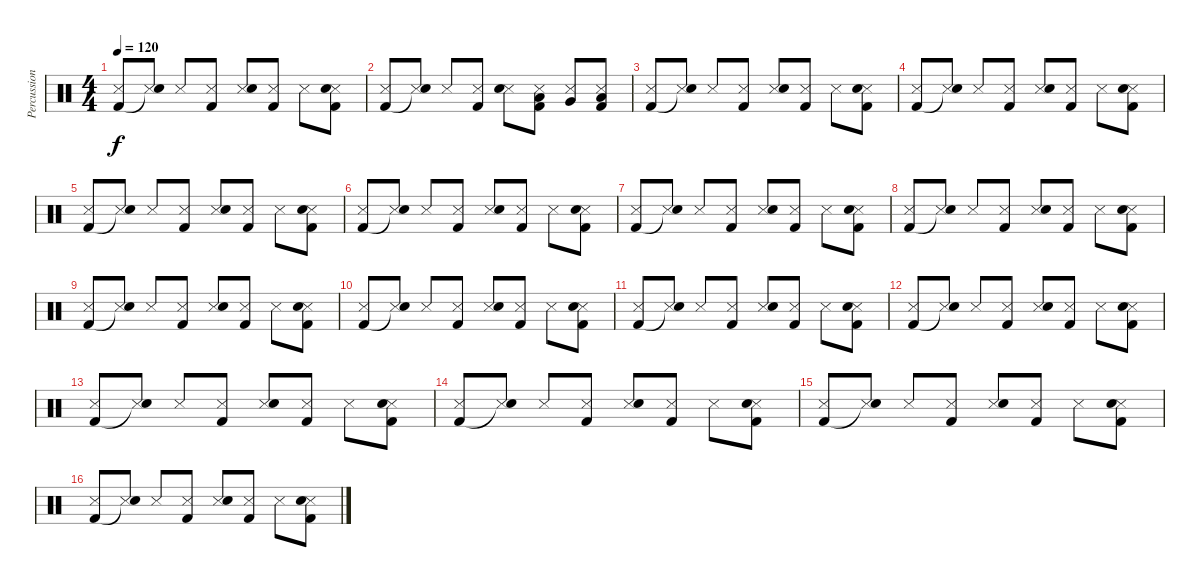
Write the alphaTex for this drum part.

\track ("Percussion" "Percussion") {instrument percussion}
\staff {score}
\articulation defaults
\ts (4 4)
\tempo 120
\clef neutral
\ks c
("Snare (side stick) 3" "Kick (hit) 2").8{dy f} ("Snare (side stick) 3" "Snare (hit)"{t}).8 "Snare (side stick) 3".8 ("Snare (side stick) 3" "Kick (hit) 2").8 ("Snare (side stick) 3" "Electric Snare (hit)").8 ("Snare (side stick) 3" "Kick (hit) 2").8 "Snare (side stick) 3".8 ("Snare (side stick) 3" "Electric Snare (hit)" "Kick (hit) 2").8 |
("Snare (side stick) 3" "Kick (hit) 2").8 ("Snare (side stick) 3" "Snare (hit)"{t}).8 "Snare (side stick) 3".8 ("Snare (side stick) 3" "Kick (hit) 2").8 ("Snare (side stick) 3" "Electric Snare (hit)").8 ("Snare (side stick) 3" "Low Tom (hit)" "Kick (hit) 2").8 ("Snare (side stick) 3" "Very Low Tom (hit)").8 ("Snare (side stick) 3" "Low Floor Tom (hit)" "Kick (hit) 2").8 |
("Snare (side stick) 3" "Kick (hit) 2").8 ("Snare (side stick) 3" "Snare (hit)"{t}).8 "Snare (side stick) 3".8 ("Snare (side stick) 3" "Kick (hit) 2").8 ("Snare (side stick) 3" "Electric Snare (hit)").8 ("Snare (side stick) 3" "Kick (hit) 2").8 "Snare (side stick) 3".8 ("Snare (side stick) 3" "Electric Snare (hit)" "Kick (hit) 2").8 |
("Snare (side stick) 3" "Kick (hit) 2").8 ("Snare (side stick) 3" "Snare (hit)"{t}).8 "Snare (side stick) 3".8 ("Snare (side stick) 3" "Kick (hit) 2").8 ("Snare (side stick) 3" "Electric Snare (hit)").8 ("Snare (side stick) 3" "Kick (hit) 2").8 "Snare (side stick) 3".8 ("Snare (side stick) 3" "Electric Snare (hit)" "Kick (hit) 2").8 |
("Snare (side stick) 3" "Kick (hit) 2").8 ("Snare (side stick) 3" "Snare (hit)"{t}).8 "Snare (side stick) 3".8 ("Snare (side stick) 3" "Kick (hit) 2").8 ("Snare (side stick) 3" "Electric Snare (hit)").8 ("Snare (side stick) 3" "Kick (hit) 2").8 "Snare (side stick) 3".8 ("Snare (side stick) 3" "Electric Snare (hit)" "Kick (hit) 2").8 |
("Snare (side stick) 3" "Kick (hit) 2").8 ("Snare (side stick) 3" "Snare (hit)"{t}).8 "Snare (side stick) 3".8 ("Snare (side stick) 3" "Kick (hit) 2").8 ("Snare (side stick) 3" "Electric Snare (hit)").8 ("Snare (side stick) 3" "Kick (hit) 2").8 "Snare (side stick) 3".8 ("Snare (side stick) 3" "Electric Snare (hit)" "Kick (hit) 2").8 |
("Snare (side stick) 3" "Kick (hit) 2").8 ("Snare (side stick) 3" "Snare (hit)"{t}).8 "Snare (side stick) 3".8 ("Snare (side stick) 3" "Kick (hit) 2").8 ("Snare (side stick) 3" "Electric Snare (hit)").8 ("Snare (side stick) 3" "Kick (hit) 2").8 "Snare (side stick) 3".8 ("Snare (side stick) 3" "Electric Snare (hit)" "Kick (hit) 2").8 |
("Snare (side stick) 3" "Kick (hit) 2").8 ("Snare (side stick) 3" "Snare (hit)"{t}).8 "Snare (side stick) 3".8 ("Snare (side stick) 3" "Kick (hit) 2").8 ("Snare (side stick) 3" "Electric Snare (hit)").8 ("Snare (side stick) 3" "Kick (hit) 2").8 "Snare (side stick) 3".8 ("Snare (side stick) 3" "Electric Snare (hit)" "Kick (hit) 2").8 |
("Snare (side stick) 3" "Kick (hit) 2").8 ("Snare (side stick) 3" "Snare (hit)"{t}).8 "Snare (side stick) 3".8 ("Snare (side stick) 3" "Kick (hit) 2").8 ("Snare (side stick) 3" "Electric Snare (hit)").8 ("Snare (side stick) 3" "Kick (hit) 2").8 "Snare (side stick) 3".8 ("Snare (side stick) 3" "Electric Snare (hit)" "Kick (hit) 2").8 |
("Snare (side stick) 3" "Kick (hit) 2").8 ("Snare (side stick) 3" "Snare (hit)"{t}).8 "Snare (side stick) 3".8 ("Snare (side stick) 3" "Kick (hit) 2").8 ("Snare (side stick) 3" "Electric Snare (hit)").8 ("Snare (side stick) 3" "Kick (hit) 2").8 "Snare (side stick) 3".8 ("Snare (side stick) 3" "Electric Snare (hit)" "Kick (hit) 2").8 |
("Snare (side stick) 3" "Kick (hit) 2").8 ("Snare (side stick) 3" "Snare (hit)"{t}).8 "Snare (side stick) 3".8 ("Snare (side stick) 3" "Kick (hit) 2").8 ("Snare (side stick) 3" "Electric Snare (hit)").8 ("Snare (side stick) 3" "Kick (hit) 2").8 "Snare (side stick) 3".8 ("Snare (side stick) 3" "Electric Snare (hit)" "Kick (hit) 2").8 |
("Snare (side stick) 3" "Kick (hit) 2").8 ("Snare (side stick) 3" "Snare (hit)"{t}).8 "Snare (side stick) 3".8 ("Snare (side stick) 3" "Kick (hit) 2").8 ("Snare (side stick) 3" "Electric Snare (hit)").8 ("Snare (side stick) 3" "Kick (hit) 2").8 "Snare (side stick) 3".8 ("Snare (side stick) 3" "Electric Snare (hit)" "Kick (hit) 2").8 |
("Snare (side stick) 3" "Kick (hit) 2").8 ("Snare (side stick) 3" "Snare (hit)"{t}).8 "Snare (side stick) 3".8 ("Snare (side stick) 3" "Kick (hit) 2").8 ("Snare (side stick) 3" "Electric Snare (hit)").8 ("Snare (side stick) 3" "Kick (hit) 2").8 "Snare (side stick) 3".8 ("Snare (side stick) 3" "Electric Snare (hit)" "Kick (hit) 2").8 |
("Snare (side stick) 3" "Kick (hit) 2").8 ("Snare (side stick) 3" "Snare (hit)"{t}).8 "Snare (side stick) 3".8 ("Snare (side stick) 3" "Kick (hit) 2").8 ("Snare (side stick) 3" "Electric Snare (hit)").8 ("Snare (side stick) 3" "Kick (hit) 2").8 "Snare (side stick) 3".8 ("Snare (side stick) 3" "Electric Snare (hit)" "Kick (hit) 2").8 |
("Snare (side stick) 3" "Kick (hit) 2").8 ("Snare (side stick) 3" "Snare (hit)"{t}).8 "Snare (side stick) 3".8 ("Snare (side stick) 3" "Kick (hit) 2").8 ("Snare (side stick) 3" "Electric Snare (hit)").8 ("Snare (side stick) 3" "Kick (hit) 2").8 "Snare (side stick) 3".8 ("Snare (side stick) 3" "Electric Snare (hit)" "Kick (hit) 2").8 |
("Snare (side stick) 3" "Kick (hit) 2").8 ("Snare (side stick) 3" "Snare (hit)"{t}).8 "Snare (side stick) 3".8 ("Snare (side stick) 3" "Kick (hit) 2").8 ("Snare (side stick) 3" "Electric Snare (hit)").8 ("Snare (side stick) 3" "Kick (hit) 2").8 "Snare (side stick) 3".8 ("Snare (side stick) 3" "Electric Snare (hit)" "Kick (hit) 2").8
